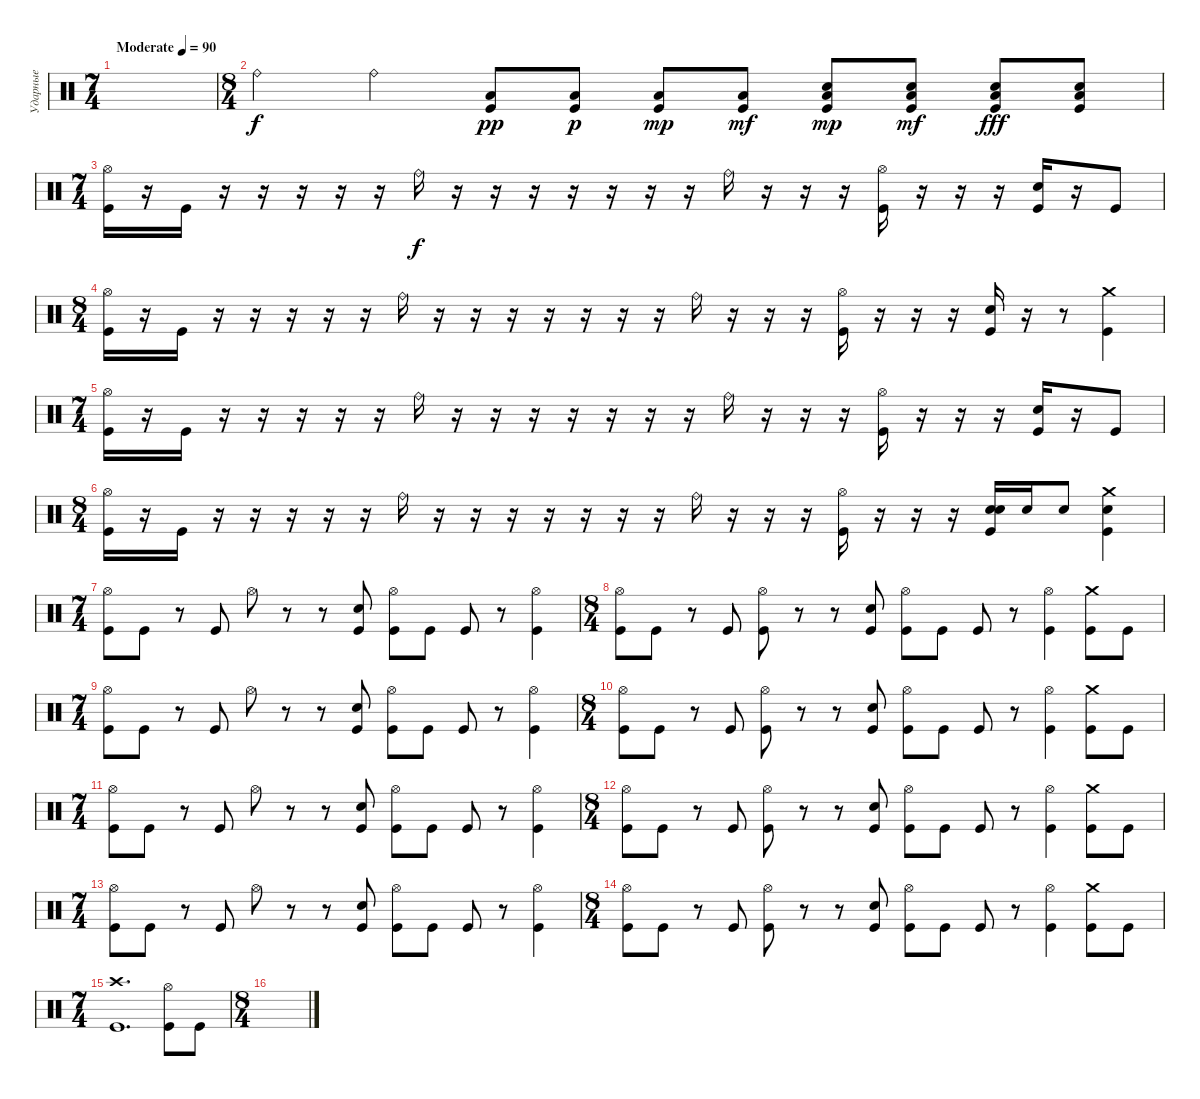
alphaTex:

\track ("Ударные" "Ударные") {instrument percussion}
\staff {score}
\articulation defaults
\ts (7 4)
\tempo (90 "Moderate")
\clef neutral
\ks c
|
\ts (8 4)
"Ride (bell)".2 "Ride (bell)".2 ("Kick (hit)" "Low Floor Tom (hit)").8{dy pp} ("Kick (hit)" "Low Floor Tom (hit)").8{dy p} ("Kick (hit)" "Low Floor Tom (hit)").8{dy mp} ("Kick (hit)" "Low Floor Tom (hit)").8{dy mf} ("Kick (hit)" "Low Floor Tom (hit)" "Snare (hit) 2").8{dy mp} ("Kick (hit)" "Low Floor Tom (hit)" "Snare (hit) 2").8{dy mf} ("Kick (hit)" "Low Floor Tom (hit)" "Snare (hit) 2").8{dy fff} ("Kick (hit)" "Low Floor Tom (hit)" "Snare (hit) 2").8 |
\ts (7 4)
("Kick (hit)" "Hi-Hat (open)").16 r.16 "Kick (hit)".16 r.16 r.16 r.16 r.16 r.16 "Ride (bell)".16{dy f} r.16 r.16 r.16 r.16 r.16 r.16 r.16 "Ride (bell)".16 r.16 r.16 r.16 ("Kick (hit)" "Hi-Hat (open)").16 r.16 r.16 r.16 ("Kick (hit)" "Snare (hit) 2").16 r.16 "Kick (hit)".8 |
\ts (8 4)
("Kick (hit)" "Hi-Hat (open)").16 r.16 "Kick (hit)".16 r.16 r.16 r.16 r.16 r.16 "Ride (bell)".16 r.16 r.16 r.16 r.16 r.16 r.16 r.16 "Ride (bell)".16 r.16 r.16 r.16 ("Kick (hit)" "Hi-Hat (open)").16 r.16 r.16 r.16 ("Kick (hit)" "Snare (hit) 2").16 r.16 r.8 ("Kick (hit)" "Crash medium (hit)").4 |
\ts (7 4)
("Kick (hit)" "Hi-Hat (open)").16 r.16 "Kick (hit)".16 r.16 r.16 r.16 r.16 r.16 "Ride (bell)".16 r.16 r.16 r.16 r.16 r.16 r.16 r.16 "Ride (bell)".16 r.16 r.16 r.16 ("Kick (hit)" "Hi-Hat (open)").16 r.16 r.16 r.16 ("Kick (hit)" "Snare (hit) 2").16 r.16 "Kick (hit)".8 |
\ts (8 4)
("Kick (hit)" "Hi-Hat (open)").16 r.16 "Kick (hit)".16 r.16 r.16 r.16 r.16 r.16 "Ride (bell)".16 r.16 r.16 r.16 r.16 r.16 r.16 r.16 "Ride (bell)".16 r.16 r.16 r.16 ("Kick (hit)" "Hi-Hat (open)").16 r.16 r.16 r.16 ("Snare (hit) 2" "Kick (hit)" "Snare (hit) 2").16 "Snare (hit) 2".16 "Snare (hit) 2".8 ("Snare (hit) 2" "Kick (hit)" "Crash medium (hit)").4 |
\ts (7 4)
("Kick (hit)" "Hi-Hat (open)").8 "Kick (hit)".8 r.8 "Kick (hit)".8 "Hi-Hat (open)".8 r.8 r.8 ("Kick (hit)" "Snare (hit) 2").8 ("Kick (hit)" "Hi-Hat (open)").8 "Kick (hit)".8 "Kick (hit)".8 r.8 ("Kick (hit)" "Hi-Hat (open)").4 |
\ts (8 4)
("Kick (hit)" "Hi-Hat (open)").8 "Kick (hit)".8 r.8 "Kick (hit)".8 ("Kick (hit)" "Hi-Hat (open)").8 r.8 r.8 ("Kick (hit)" "Snare (hit) 2").8 ("Kick (hit)" "Hi-Hat (open)").8 "Kick (hit)".8 "Kick (hit)".8 r.8 ("Kick (hit)" "Hi-Hat (open)").4 ("Kick (hit)" "Crash medium (hit)").8 "Kick (hit)".8 |
\ts (7 4)
("Kick (hit)" "Hi-Hat (open)").8 "Kick (hit)".8 r.8 "Kick (hit)".8 "Hi-Hat (open)".8 r.8 r.8 ("Kick (hit)" "Snare (hit) 2").8 ("Kick (hit)" "Hi-Hat (open)").8 "Kick (hit)".8 "Kick (hit)".8 r.8 ("Kick (hit)" "Hi-Hat (open)").4 |
\ts (8 4)
("Kick (hit)" "Hi-Hat (open)").8 "Kick (hit)".8 r.8 "Kick (hit)".8 ("Kick (hit)" "Hi-Hat (open)").8 r.8 r.8 ("Kick (hit)" "Snare (hit) 2").8 ("Kick (hit)" "Hi-Hat (open)").8 "Kick (hit)".8 "Kick (hit)".8 r.8 ("Kick (hit)" "Hi-Hat (open)").4 ("Kick (hit)" "Crash medium (hit)").8 "Kick (hit)".8 |
\ts (7 4)
("Kick (hit)" "Hi-Hat (open)").8 "Kick (hit)".8 r.8 "Kick (hit)".8 "Hi-Hat (open)".8 r.8 r.8 ("Kick (hit)" "Snare (hit) 2").8 ("Kick (hit)" "Hi-Hat (open)").8 "Kick (hit)".8 "Kick (hit)".8 r.8 ("Kick (hit)" "Hi-Hat (open)").4 |
\ts (8 4)
("Kick (hit)" "Hi-Hat (open)").8 "Kick (hit)".8 r.8 "Kick (hit)".8 ("Kick (hit)" "Hi-Hat (open)").8 r.8 r.8 ("Kick (hit)" "Snare (hit) 2").8 ("Kick (hit)" "Hi-Hat (open)").8 "Kick (hit)".8 "Kick (hit)".8 r.8 ("Kick (hit)" "Hi-Hat (open)").4 ("Kick (hit)" "Crash medium (hit)").8 "Kick (hit)".8 |
\ts (7 4)
("Kick (hit)" "Hi-Hat (open)").8 "Kick (hit)".8 r.8 "Kick (hit)".8 "Hi-Hat (open)".8 r.8 r.8 ("Kick (hit)" "Snare (hit) 2").8 ("Kick (hit)" "Hi-Hat (open)").8 "Kick (hit)".8 "Kick (hit)".8 r.8 ("Kick (hit)" "Hi-Hat (open)").4 |
\ts (8 4)
("Kick (hit)" "Hi-Hat (open)").8 "Kick (hit)".8 r.8 "Kick (hit)".8 ("Kick (hit)" "Hi-Hat (open)").8 r.8 r.8 ("Kick (hit)" "Snare (hit) 2").8 ("Kick (hit)" "Hi-Hat (open)").8 "Kick (hit)".8 "Kick (hit)".8 r.8 ("Kick (hit)" "Hi-Hat (open)").4 ("Kick (hit)" "Crash medium (hit)").8 "Kick (hit)".8 |
\ts (7 4)
("Crash high (hit)" "Kick (hit)").1{d} ("Kick (hit)" "Hi-Hat (open)").8 "Kick (hit)".8 |
\ts (8 4)
